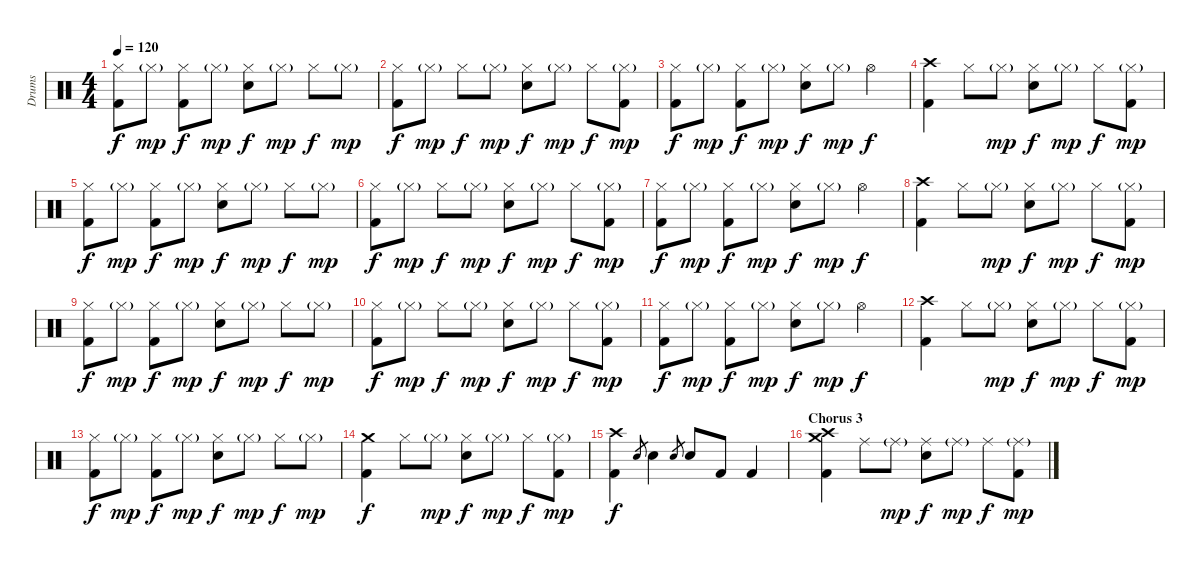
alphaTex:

\track ("Drums" "Drums") {instrument percussion}
\staff {score}
\articulation defaults
\ts (4 4)
\tempo 120
\clef neutral
\ks c
("Hi-Hat (closed)" "Kick (hit) 2").8{dy f} "Hi-Hat (closed)"{g}.8{dy mp} ("Hi-Hat (closed)" "Kick (hit) 2").8{dy f} "Hi-Hat (closed)"{g}.8{dy mp} ("Hi-Hat (closed)" "Snare (hit) 2").8{dy f} "Hi-Hat (closed)"{g}.8{dy mp} "Hi-Hat (closed)".8{dy f} "Hi-Hat (closed)"{g}.8{dy mp} |
("Hi-Hat (closed)" "Kick (hit) 2").8{dy f} "Hi-Hat (closed)"{g}.8{dy mp} "Hi-Hat (closed)".8{dy f} "Hi-Hat (closed)"{g}.8{dy mp} ("Hi-Hat (closed)" "Snare (hit) 2").8{dy f} "Hi-Hat (closed)"{g}.8{dy mp} "Hi-Hat (closed)".8{dy f} ("Hi-Hat (closed)"{g} "Kick (hit) 2").8{dy mp} |
("Hi-Hat (closed)" "Kick (hit) 2").8{dy f} "Hi-Hat (closed)"{g}.8{dy mp} ("Hi-Hat (closed)" "Kick (hit) 2").8{dy f} "Hi-Hat (closed)"{g}.8{dy mp} ("Hi-Hat (closed)" "Snare (hit) 2").8{dy f} "Hi-Hat (closed)"{g}.8{dy mp} "Hi-Hat (open)".4{dy f} |
("Crash high (hit)" "Kick (hit) 2").4 "Hi-Hat (closed)".8 "Hi-Hat (closed)"{g}.8{dy mp} ("Hi-Hat (closed)" "Snare (hit) 2").8{dy f} "Hi-Hat (closed)"{g}.8{dy mp} "Hi-Hat (closed)".8{dy f} ("Hi-Hat (closed)"{g} "Kick (hit) 2").8{dy mp} |
("Hi-Hat (closed)" "Kick (hit) 2").8{dy f} "Hi-Hat (closed)"{g}.8{dy mp} ("Hi-Hat (closed)" "Kick (hit) 2").8{dy f} "Hi-Hat (closed)"{g}.8{dy mp} ("Hi-Hat (closed)" "Snare (hit) 2").8{dy f} "Hi-Hat (closed)"{g}.8{dy mp} "Hi-Hat (closed)".8{dy f} "Hi-Hat (closed)"{g}.8{dy mp} |
("Hi-Hat (closed)" "Kick (hit) 2").8{dy f} "Hi-Hat (closed)"{g}.8{dy mp} "Hi-Hat (closed)".8{dy f} "Hi-Hat (closed)"{g}.8{dy mp} ("Hi-Hat (closed)" "Snare (hit) 2").8{dy f} "Hi-Hat (closed)"{g}.8{dy mp} "Hi-Hat (closed)".8{dy f} ("Hi-Hat (closed)"{g} "Kick (hit) 2").8{dy mp} |
("Hi-Hat (closed)" "Kick (hit) 2").8{dy f} "Hi-Hat (closed)"{g}.8{dy mp} ("Hi-Hat (closed)" "Kick (hit) 2").8{dy f} "Hi-Hat (closed)"{g}.8{dy mp} ("Hi-Hat (closed)" "Snare (hit) 2").8{dy f} "Hi-Hat (closed)"{g}.8{dy mp} "Hi-Hat (open)".4{dy f} |
("Crash high (hit)" "Kick (hit) 2").4 "Hi-Hat (closed)".8 "Hi-Hat (closed)"{g}.8{dy mp} ("Hi-Hat (closed)" "Snare (hit) 2").8{dy f} "Hi-Hat (closed)"{g}.8{dy mp} "Hi-Hat (closed)".8{dy f} ("Hi-Hat (closed)"{g} "Kick (hit) 2").8{dy mp} |
("Hi-Hat (closed)" "Kick (hit) 2").8{dy f} "Hi-Hat (closed)"{g}.8{dy mp} ("Hi-Hat (closed)" "Kick (hit) 2").8{dy f} "Hi-Hat (closed)"{g}.8{dy mp} ("Hi-Hat (closed)" "Snare (hit) 2").8{dy f} "Hi-Hat (closed)"{g}.8{dy mp} "Hi-Hat (closed)".8{dy f} "Hi-Hat (closed)"{g}.8{dy mp} |
("Hi-Hat (closed)" "Kick (hit) 2").8{dy f} "Hi-Hat (closed)"{g}.8{dy mp} "Hi-Hat (closed)".8{dy f} "Hi-Hat (closed)"{g}.8{dy mp} ("Hi-Hat (closed)" "Snare (hit) 2").8{dy f} "Hi-Hat (closed)"{g}.8{dy mp} "Hi-Hat (closed)".8{dy f} ("Hi-Hat (closed)"{g} "Kick (hit) 2").8{dy mp} |
("Hi-Hat (closed)" "Kick (hit) 2").8{dy f} "Hi-Hat (closed)"{g}.8{dy mp} ("Hi-Hat (closed)" "Kick (hit) 2").8{dy f} "Hi-Hat (closed)"{g}.8{dy mp} ("Hi-Hat (closed)" "Snare (hit) 2").8{dy f} "Hi-Hat (closed)"{g}.8{dy mp} "Hi-Hat (open)".4{dy f} |
("Crash high (hit)" "Kick (hit) 2").4 "Hi-Hat (closed)".8 "Hi-Hat (closed)"{g}.8{dy mp} ("Hi-Hat (closed)" "Snare (hit) 2").8{dy f} "Hi-Hat (closed)"{g}.8{dy mp} "Hi-Hat (closed)".8{dy f} ("Hi-Hat (closed)"{g} "Kick (hit) 2").8{dy mp} |
("Hi-Hat (closed)" "Kick (hit) 2").8{dy f} "Hi-Hat (closed)"{g}.8{dy mp} ("Hi-Hat (closed)" "Kick (hit) 2").8{dy f} "Hi-Hat (closed)"{g}.8{dy mp} ("Hi-Hat (closed)" "Snare (hit) 2").8{dy f} "Hi-Hat (closed)"{g}.8{dy mp} "Hi-Hat (closed)".8{dy f} "Hi-Hat (closed)"{g}.8{dy mp} |
("Crash medium (hit)" "Kick (hit) 2").4{dy f} "Hi-Hat (closed)".8 "Hi-Hat (closed)"{g}.8{dy mp} ("Hi-Hat (closed)" "Snare (hit) 2").8{dy f} "Hi-Hat (closed)"{g}.8{dy mp} "Hi-Hat (closed)".8{dy f} ("Hi-Hat (closed)"{g} "Kick (hit) 2").8{dy mp} |
("Crash high (hit)" "Kick (hit) 2").4{dy f} "Snare (hit) 2".8{gr} "Snare (hit) 2".4 "Snare (hit) 2".8{gr} "Snare (hit) 2".8 "Kick (hit) 2".8 "Kick (hit) 2".4 |
\section ("" "Chorus 3")
("Crash medium (hit)" "Crash high (hit)" "Kick (hit) 2").4 "Ride (middle)".8 "Ride (middle)"{g}.8{dy mp} ("Ride (middle)" "Snare (hit) 2").8{dy f} "Ride (middle)"{g}.8{dy mp} "Ride (middle)".8{dy f} ("Ride (middle)"{g} "Kick (hit) 2").8{dy mp}
